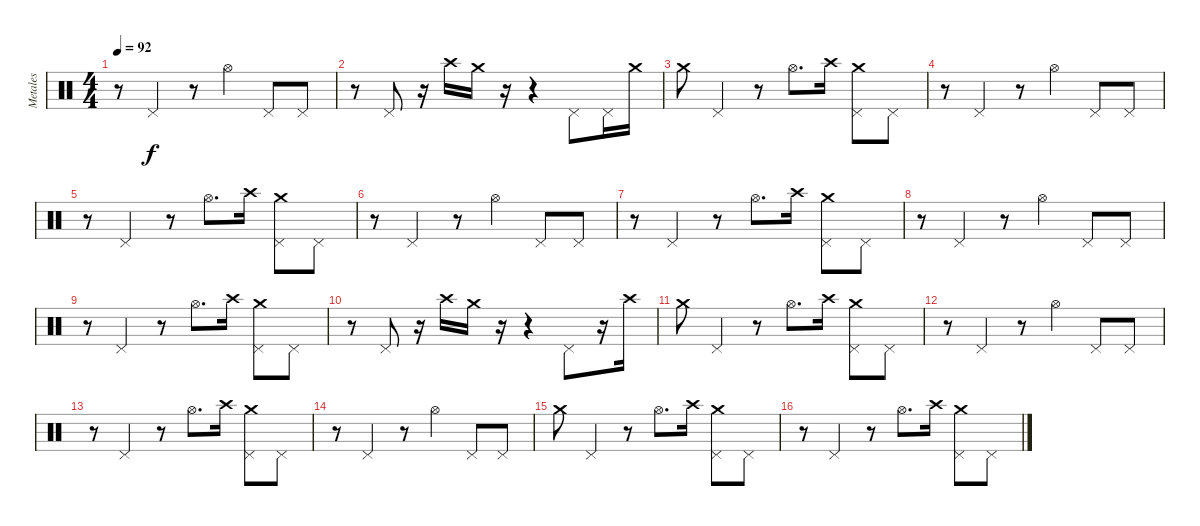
\track ("Metales" "Metales") {instrument percussion}
\staff {score}
\articulation defaults
\ts (4 4)
\tempo 92
\clef neutral
\ks c
r.8{dy f} "Pedal Hi-Hat (hit)".4 r.8 "Hi-Hat (open)".4 "Pedal Hi-Hat (hit)".8 "Pedal Hi-Hat (hit)".8 |
r.8 "Pedal Hi-Hat (hit)".8 r.16 "Crash high (hit)".16 "Crash medium (hit)".16 r.16 r.4 "Pedal Hi-Hat (hit)".8 "Pedal Hi-Hat (hit)".16 "Crash medium (hit)".16 |
"Crash medium (hit)".8 "Pedal Hi-Hat (hit)".4 r.8 "Hi-Hat (open)".8{d} "Crash high (hit)".16 ("Crash medium (hit)" "Pedal Hi-Hat (hit)").8 "Pedal Hi-Hat (hit)".8 |
r.8 "Pedal Hi-Hat (hit)".4 r.8 "Hi-Hat (open)".4 "Pedal Hi-Hat (hit)".8 "Pedal Hi-Hat (hit)".8 |
r.8 "Pedal Hi-Hat (hit)".4 r.8 "Hi-Hat (open)".8{d} "Crash high (hit)".16 ("Crash medium (hit)" "Pedal Hi-Hat (hit)").8 "Pedal Hi-Hat (hit)".8 |
r.8 "Pedal Hi-Hat (hit)".4 r.8 "Hi-Hat (open)".4 "Pedal Hi-Hat (hit)".8 "Pedal Hi-Hat (hit)".8 |
r.8 "Pedal Hi-Hat (hit)".4 r.8 "Hi-Hat (open)".8{d} "Crash high (hit)".16 ("Crash medium (hit)" "Pedal Hi-Hat (hit)").8 "Pedal Hi-Hat (hit)".8 |
r.8 "Pedal Hi-Hat (hit)".4 r.8 "Hi-Hat (open)".4 "Pedal Hi-Hat (hit)".8 "Pedal Hi-Hat (hit)".8 |
r.8 "Pedal Hi-Hat (hit)".4 r.8 "Hi-Hat (open)".8{d} "Crash high (hit)".16 ("Crash medium (hit)" "Pedal Hi-Hat (hit)").8 "Pedal Hi-Hat (hit)".8 |
r.8 "Pedal Hi-Hat (hit)".8 r.16 "Crash high (hit)".16 "Crash medium (hit)".16 r.16 r.4 "Pedal Hi-Hat (hit)".8 r.16 "Crash high (hit)".16 |
"Crash medium (hit)".8 "Pedal Hi-Hat (hit)".4 r.8 "Hi-Hat (open)".8{d} "Crash high (hit)".16 ("Crash medium (hit)" "Pedal Hi-Hat (hit)").8 "Pedal Hi-Hat (hit)".8 |
r.8 "Pedal Hi-Hat (hit)".4 r.8 "Hi-Hat (open)".4 "Pedal Hi-Hat (hit)".8 "Pedal Hi-Hat (hit)".8 |
r.8 "Pedal Hi-Hat (hit)".4 r.8 "Hi-Hat (open)".8{d} "Crash high (hit)".16 ("Crash medium (hit)" "Pedal Hi-Hat (hit)").8 "Pedal Hi-Hat (hit)".8 |
r.8 "Pedal Hi-Hat (hit)".4 r.8 "Hi-Hat (open)".4 "Pedal Hi-Hat (hit)".8 "Pedal Hi-Hat (hit)".8 |
"Crash medium (hit)".8 "Pedal Hi-Hat (hit)".4 r.8 "Hi-Hat (open)".8{d} "Crash high (hit)".16 ("Crash medium (hit)" "Pedal Hi-Hat (hit)").8 "Pedal Hi-Hat (hit)".8 |
r.8 "Pedal Hi-Hat (hit)".4 r.8 "Hi-Hat (open)".8{d} "Crash high (hit)".16 ("Crash medium (hit)" "Pedal Hi-Hat (hit)").8 "Pedal Hi-Hat (hit)".8
